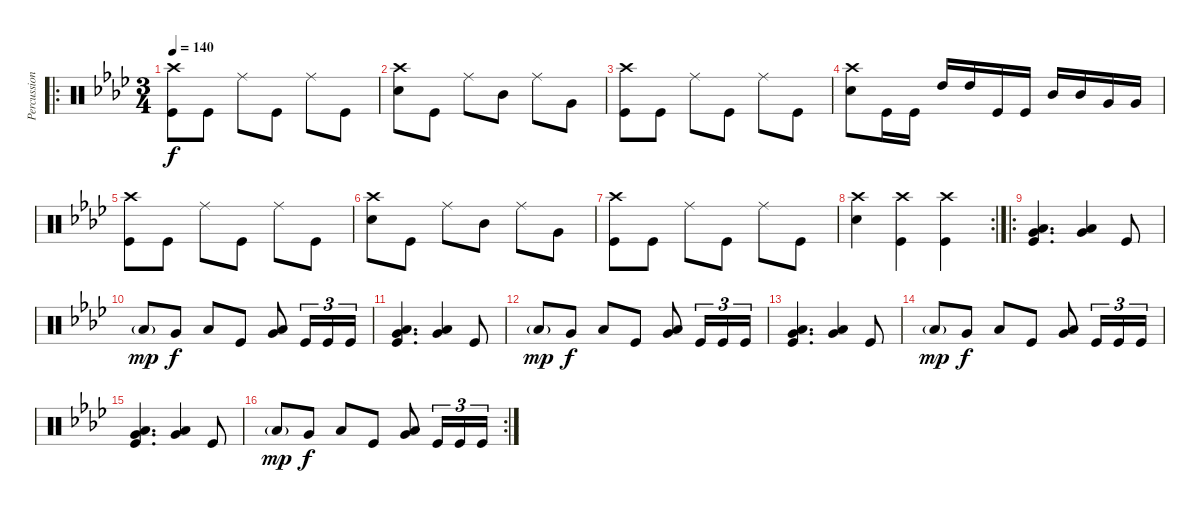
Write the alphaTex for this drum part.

\track ("Percussion" "Percussion") {instrument percussion}
\staff {score}
\articulation defaults
\ro
\ts (3 4)
\tempo 140
\clef neutral
\ks ab
("Crash high (hit)" "Kick (hit)").8{dy f} "Kick (hit)".8 "Ride (middle)".8 "Kick (hit)".8 "Ride (middle)".8 "Kick (hit)".8 |
("Crash high (hit)" "Snare (hit) 2").8 "Kick (hit)".8 "Ride (middle)".8 "Mid Tom (hit)".8 "Ride (middle)".8 "Very Low Tom (hit)".8 |
("Crash high (hit)" "Kick (hit)").8 "Kick (hit)".8 "Ride (middle)".8 "Kick (hit)".8 "Ride (middle)".8 "Kick (hit)".8 |
("Crash high (hit)" "Snare (hit) 2").8 "Kick (hit)".16 "Kick (hit)".16 "High Tom (hit)".16 "High Tom (hit)".16 "Kick (hit)".16 "Kick (hit)".16 "Mid Tom (hit)".16 "Mid Tom (hit)".16 "Very Low Tom (hit)".16 "Very Low Tom (hit)".16 |
("Crash high (hit)" "Kick (hit)").8 "Kick (hit)".8 "Ride (middle)".8 "Kick (hit)".8 "Ride (middle)".8 "Kick (hit)".8 |
("Crash high (hit)" "Snare (hit) 2").8 "Kick (hit)".8 "Ride (middle)".8 "Mid Tom (hit)".8 "Ride (middle)".8 "Very Low Tom (hit)".8 |
("Crash high (hit)" "Kick (hit)").8 "Kick (hit)".8 "Ride (middle)".8 "Kick (hit)".8 "Ride (middle)".8 "Kick (hit)".8 |
\rc 2
("Crash high (hit)" "Snare (hit) 2").4 ("Kick (hit)" "Crash high (hit)").4 ("Kick (hit)" "Crash high (hit)").4 |
\ro
("Low Floor Tom (hit)" "Very Low Tom (hit)" "Kick (hit)").4{d} ("Low Floor Tom (hit)" "Very Low Tom (hit)").4 "Kick (hit)".8 |
"Low Floor Tom (hit)"{g}.8{dy mp} "Very Low Tom (hit)".8{dy f} "Low Floor Tom (hit)".8 "Kick (hit)".8 ("Very Low Tom (hit)" "Low Floor Tom (hit)").8 "Kick (hit)".16{tu (3 2)} "Kick (hit)".16{tu (3 2)} "Kick (hit)".16{tu (3 2)} |
("Low Floor Tom (hit)" "Very Low Tom (hit)" "Kick (hit)").4{d} ("Low Floor Tom (hit)" "Very Low Tom (hit)").4 "Kick (hit)".8 |
"Low Floor Tom (hit)"{g}.8{dy mp} "Very Low Tom (hit)".8{dy f} "Low Floor Tom (hit)".8 "Kick (hit)".8 ("Very Low Tom (hit)" "Low Floor Tom (hit)").8 "Kick (hit)".16{tu (3 2)} "Kick (hit)".16{tu (3 2)} "Kick (hit)".16{tu (3 2)} |
("Low Floor Tom (hit)" "Very Low Tom (hit)" "Kick (hit)").4{d} ("Low Floor Tom (hit)" "Very Low Tom (hit)").4 "Kick (hit)".8 |
"Low Floor Tom (hit)"{g}.8{dy mp} "Very Low Tom (hit)".8{dy f} "Low Floor Tom (hit)".8 "Kick (hit)".8 ("Very Low Tom (hit)" "Low Floor Tom (hit)").8 "Kick (hit)".16{tu (3 2)} "Kick (hit)".16{tu (3 2)} "Kick (hit)".16{tu (3 2)} |
("Low Floor Tom (hit)" "Very Low Tom (hit)" "Kick (hit)").4{d} ("Low Floor Tom (hit)" "Very Low Tom (hit)").4 "Kick (hit)".8 |
\rc 2 "Low Floor Tom (hit)"{g}.8{dy mp} "Very Low Tom (hit)".8{dy f} "Low Floor Tom (hit)".8 "Kick (hit)".8
("Very Low Tom (hit)" "Low Floor Tom (hit)").8 "Kick (hit)".16{tu (3 2)} "Kick (hit)".16{tu (3 2)} "Kick (hit)".16{tu (3 2)}
